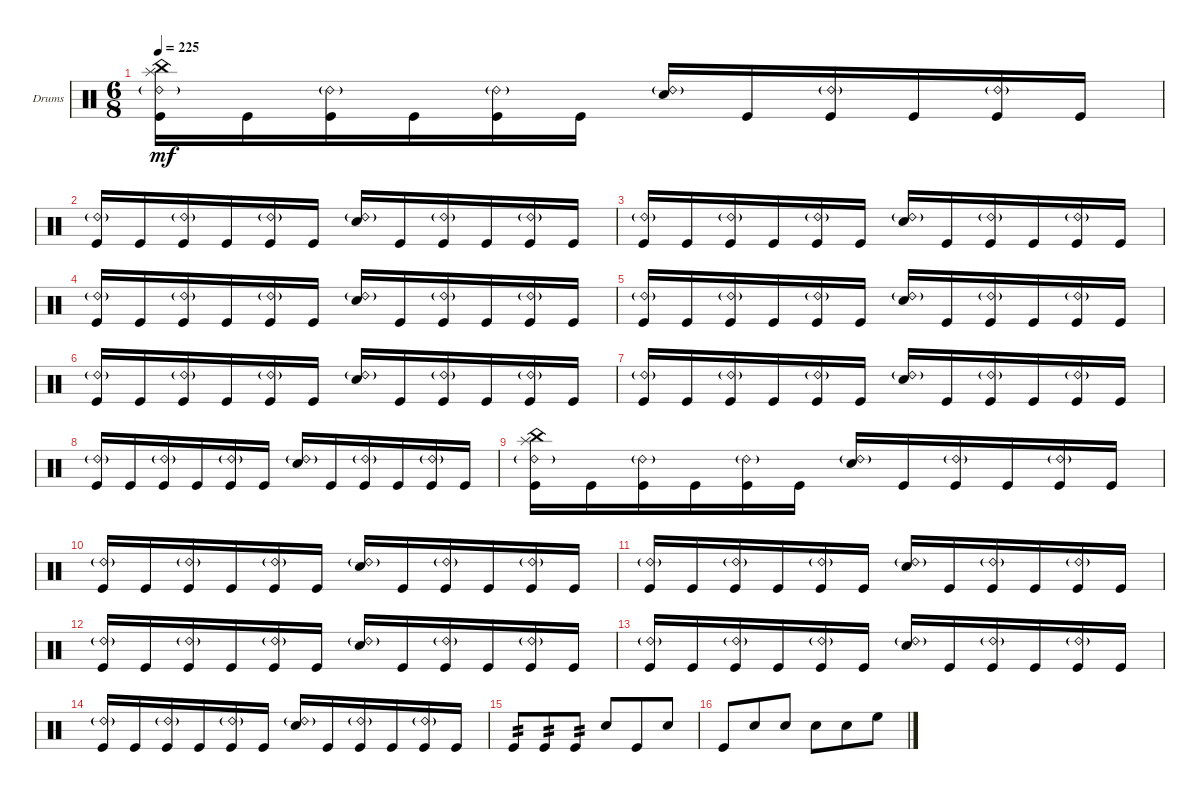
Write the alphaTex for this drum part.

\bracketExtendMode groupsimilarinstruments
\firstSystemTrackNameOrientation horizontal
\otherSystemsTrackNameOrientation horizontal
\track ("Drumkit" "Drums") {instrument percussion}
\staff {score}
\articulation defaults
\ts (6 8)
\tempo 225
\clef neutral
\ks c
("Kick (hit)" "Ride (bell) 2"{g} "Splash (hit)" "China (hit)").16{dy mf} "Kick (hit)".16 ("Kick (hit)" "Ride (bell) 2"{g}).16 "Kick (hit)".16 ("Kick (hit)" "Ride (bell) 2"{g}).16 "Kick (hit)".16 ("Snare (hit) 2" "Ride (bell) 2"{g}).16 "Kick (hit)".16 ("Kick (hit)" "Ride (bell) 2"{g}).16 "Kick (hit)".16 ("Kick (hit)" "Ride (bell) 2"{g}).16 "Kick (hit)".16 |
("Kick (hit)" "Ride (bell) 2"{g}).16 "Kick (hit)".16 ("Kick (hit)" "Ride (bell) 2"{g}).16 "Kick (hit)".16 ("Kick (hit)" "Ride (bell) 2"{g}).16 "Kick (hit)".16 ("Snare (hit) 2" "Ride (bell) 2"{g}).16 "Kick (hit)".16 ("Kick (hit)" "Ride (bell) 2"{g}).16 "Kick (hit)".16 ("Kick (hit)" "Ride (bell) 2"{g}).16 "Kick (hit)".16 |
("Kick (hit)" "Ride (bell) 2"{g}).16 "Kick (hit)".16 ("Kick (hit)" "Ride (bell) 2"{g}).16 "Kick (hit)".16 ("Kick (hit)" "Ride (bell) 2"{g}).16 "Kick (hit)".16 ("Snare (hit) 2" "Ride (bell) 2"{g}).16 "Kick (hit)".16 ("Kick (hit)" "Ride (bell) 2"{g}).16 "Kick (hit)".16 ("Kick (hit)" "Ride (bell) 2"{g}).16 "Kick (hit)".16 |
("Kick (hit)" "Ride (bell) 2"{g}).16 "Kick (hit)".16 ("Kick (hit)" "Ride (bell) 2"{g}).16 "Kick (hit)".16 ("Kick (hit)" "Ride (bell) 2"{g}).16 "Kick (hit)".16 ("Snare (hit) 2" "Ride (bell) 2"{g}).16 "Kick (hit)".16 ("Kick (hit)" "Ride (bell) 2"{g}).16 "Kick (hit)".16 ("Kick (hit)" "Ride (bell) 2"{g}).16 "Kick (hit)".16 |
("Kick (hit)" "Ride (bell) 2"{g}).16 "Kick (hit)".16 ("Kick (hit)" "Ride (bell) 2"{g}).16 "Kick (hit)".16 ("Kick (hit)" "Ride (bell) 2"{g}).16 "Kick (hit)".16 ("Snare (hit) 2" "Ride (bell) 2"{g}).16 "Kick (hit)".16 ("Kick (hit)" "Ride (bell) 2"{g}).16 "Kick (hit)".16 ("Kick (hit)" "Ride (bell) 2"{g}).16 "Kick (hit)".16 |
("Kick (hit)" "Ride (bell) 2"{g}).16 "Kick (hit)".16 ("Kick (hit)" "Ride (bell) 2"{g}).16 "Kick (hit)".16 ("Kick (hit)" "Ride (bell) 2"{g}).16 "Kick (hit)".16 ("Snare (hit) 2" "Ride (bell) 2"{g}).16 "Kick (hit)".16 ("Kick (hit)" "Ride (bell) 2"{g}).16 "Kick (hit)".16 ("Kick (hit)" "Ride (bell) 2"{g}).16 "Kick (hit)".16 |
("Kick (hit)" "Ride (bell) 2"{g}).16 "Kick (hit)".16 ("Kick (hit)" "Ride (bell) 2"{g}).16 "Kick (hit)".16 ("Kick (hit)" "Ride (bell) 2"{g}).16 "Kick (hit)".16 ("Snare (hit) 2" "Ride (bell) 2"{g}).16 "Kick (hit)".16 ("Kick (hit)" "Ride (bell) 2"{g}).16 "Kick (hit)".16 ("Kick (hit)" "Ride (bell) 2"{g}).16 "Kick (hit)".16 |
("Kick (hit)" "Ride (bell) 2"{g}).16 "Kick (hit)".16 ("Kick (hit)" "Ride (bell) 2"{g}).16 "Kick (hit)".16 ("Kick (hit)" "Ride (bell) 2"{g}).16 "Kick (hit)".16 ("Snare (hit) 2" "Ride (bell) 2"{g}).16 "Kick (hit)".16 ("Kick (hit)" "Ride (bell) 2"{g}).16 "Kick (hit)".16 ("Kick (hit)" "Ride (bell) 2"{g}).16 "Kick (hit)".16 |
("Kick (hit)" "Ride (bell) 2"{g} "Splash (hit)" "China (hit)").16 "Kick (hit)".16 ("Kick (hit)" "Ride (bell) 2"{g}).16 "Kick (hit)".16 ("Kick (hit)" "Ride (bell) 2"{g}).16 "Kick (hit)".16 ("Snare (hit) 2" "Ride (bell) 2"{g}).16 "Kick (hit)".16 ("Kick (hit)" "Ride (bell) 2"{g}).16 "Kick (hit)".16 ("Kick (hit)" "Ride (bell) 2"{g}).16 "Kick (hit)".16 |
("Kick (hit)" "Ride (bell) 2"{g}).16 "Kick (hit)".16 ("Kick (hit)" "Ride (bell) 2"{g}).16 "Kick (hit)".16 ("Kick (hit)" "Ride (bell) 2"{g}).16 "Kick (hit)".16 ("Snare (hit) 2" "Ride (bell) 2"{g}).16 "Kick (hit)".16 ("Kick (hit)" "Ride (bell) 2"{g}).16 "Kick (hit)".16 ("Kick (hit)" "Ride (bell) 2"{g}).16 "Kick (hit)".16 |
("Kick (hit)" "Ride (bell) 2"{g}).16 "Kick (hit)".16 ("Kick (hit)" "Ride (bell) 2"{g}).16 "Kick (hit)".16 ("Kick (hit)" "Ride (bell) 2"{g}).16 "Kick (hit)".16 ("Snare (hit) 2" "Ride (bell) 2"{g}).16 "Kick (hit)".16 ("Kick (hit)" "Ride (bell) 2"{g}).16 "Kick (hit)".16 ("Kick (hit)" "Ride (bell) 2"{g}).16 "Kick (hit)".16 |
("Kick (hit)" "Ride (bell) 2"{g}).16 "Kick (hit)".16 ("Kick (hit)" "Ride (bell) 2"{g}).16 "Kick (hit)".16 ("Kick (hit)" "Ride (bell) 2"{g}).16 "Kick (hit)".16 ("Snare (hit) 2" "Ride (bell) 2"{g}).16 "Kick (hit)".16 ("Kick (hit)" "Ride (bell) 2"{g}).16 "Kick (hit)".16 ("Kick (hit)" "Ride (bell) 2"{g}).16 "Kick (hit)".16 |
("Kick (hit)" "Ride (bell) 2"{g}).16 "Kick (hit)".16 ("Kick (hit)" "Ride (bell) 2"{g}).16 "Kick (hit)".16 ("Kick (hit)" "Ride (bell) 2"{g}).16 "Kick (hit)".16 ("Snare (hit) 2" "Ride (bell) 2"{g}).16 "Kick (hit)".16 ("Kick (hit)" "Ride (bell) 2"{g}).16 "Kick (hit)".16 ("Kick (hit)" "Ride (bell) 2"{g}).16 "Kick (hit)".16 |
("Kick (hit)" "Ride (bell) 2"{g}).16 "Kick (hit)".16 ("Kick (hit)" "Ride (bell) 2"{g}).16 "Kick (hit)".16 ("Kick (hit)" "Ride (bell) 2"{g}).16 "Kick (hit)".16 ("Snare (hit) 2" "Ride (bell) 2"{g}).16 "Kick (hit)".16 ("Kick (hit)" "Ride (bell) 2"{g}).16 "Kick (hit)".16 ("Kick (hit)" "Ride (bell) 2"{g}).16 "Kick (hit)".16 |
"Kick (hit)".8{tp 2} "Kick (hit)".8{tp 2} "Kick (hit)".8{tp 2} "Snare (hit) 2".8 "Kick (hit)".8 "Snare (hit) 2".8 |
"Kick (hit)".8 "Snare (hit) 2".8 "Snare (hit) 2".8 "Snare (hit) 2".8 "Snare (hit) 2".8 "High Floor Tom (hit)".8
